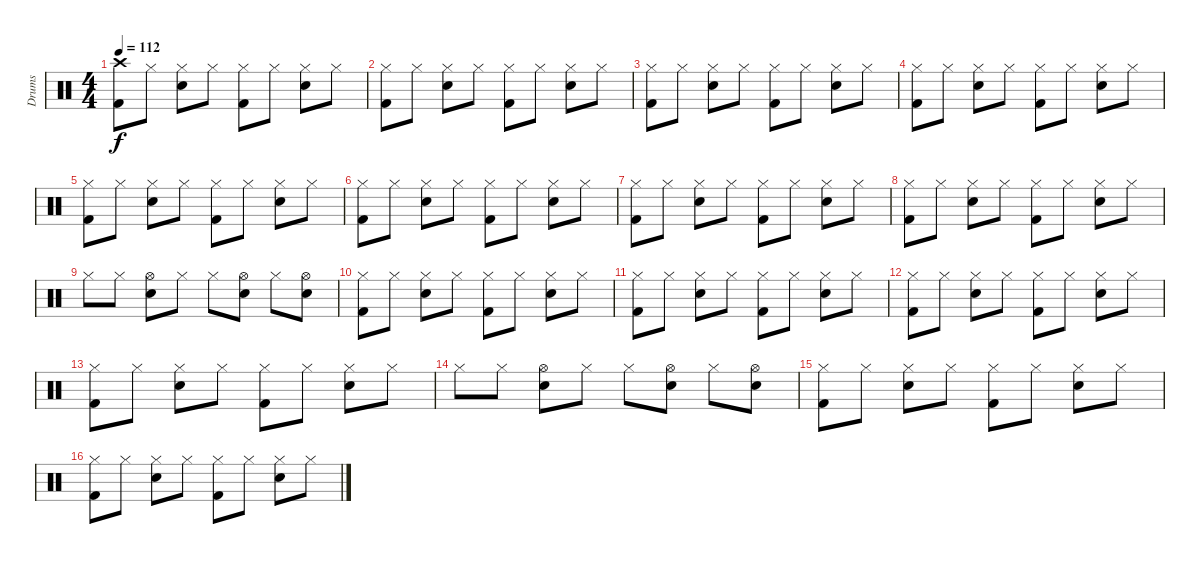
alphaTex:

\track ("Drums" "Drums") {instrument percussion}
\staff {score}
\articulation defaults
\ts (4 4)
\tempo 112
\clef neutral
\ks c
("Kick (hit) 2" "Crash high (hit)").8{dy f} "Hi-Hat (closed)".8 ("Snare (hit) 2" "Hi-Hat (closed)").8 "Hi-Hat (closed)".8 ("Kick (hit) 2" "Hi-Hat (closed)").8 "Hi-Hat (closed)".8 ("Snare (hit) 2" "Hi-Hat (closed)").8 "Hi-Hat (closed)".8 |
("Kick (hit) 2" "Hi-Hat (closed)").8 "Hi-Hat (closed)".8 ("Snare (hit) 2" "Hi-Hat (closed)").8 "Hi-Hat (closed)".8 ("Kick (hit) 2" "Hi-Hat (closed)").8 "Hi-Hat (closed)".8 ("Snare (hit) 2" "Hi-Hat (closed)").8 "Hi-Hat (closed)".8 |
("Kick (hit) 2" "Hi-Hat (closed)").8 "Hi-Hat (closed)".8 ("Snare (hit) 2" "Hi-Hat (closed)").8 "Hi-Hat (closed)".8 ("Kick (hit) 2" "Hi-Hat (closed)").8 "Hi-Hat (closed)".8 ("Snare (hit) 2" "Hi-Hat (closed)").8 "Hi-Hat (closed)".8 |
("Kick (hit) 2" "Hi-Hat (closed)").8 "Hi-Hat (closed)".8 ("Snare (hit) 2" "Hi-Hat (closed)").8 "Hi-Hat (closed)".8 ("Kick (hit) 2" "Hi-Hat (closed)").8 "Hi-Hat (closed)".8 ("Snare (hit) 2" "Hi-Hat (closed)").8 "Hi-Hat (closed)".8 |
("Kick (hit) 2" "Hi-Hat (closed)").8 "Hi-Hat (closed)".8 ("Snare (hit) 2" "Hi-Hat (closed)").8 "Hi-Hat (closed)".8 ("Kick (hit) 2" "Hi-Hat (closed)").8 "Hi-Hat (closed)".8 ("Snare (hit) 2" "Hi-Hat (closed)").8 "Hi-Hat (closed)".8 |
("Kick (hit) 2" "Hi-Hat (closed)").8 "Hi-Hat (closed)".8 ("Snare (hit) 2" "Hi-Hat (closed)").8 "Hi-Hat (closed)".8 ("Kick (hit) 2" "Hi-Hat (closed)").8 "Hi-Hat (closed)".8 ("Snare (hit) 2" "Hi-Hat (closed)").8 "Hi-Hat (closed)".8 |
("Kick (hit) 2" "Hi-Hat (closed)").8 "Hi-Hat (closed)".8 ("Snare (hit) 2" "Hi-Hat (closed)").8 "Hi-Hat (closed)".8 ("Kick (hit) 2" "Hi-Hat (closed)").8 "Hi-Hat (closed)".8 ("Snare (hit) 2" "Hi-Hat (closed)").8 "Hi-Hat (closed)".8 |
("Kick (hit) 2" "Hi-Hat (closed)").8 "Hi-Hat (closed)".8 ("Snare (hit) 2" "Hi-Hat (closed)").8 "Hi-Hat (closed)".8 ("Kick (hit) 2" "Hi-Hat (closed)").8 "Hi-Hat (closed)".8 ("Snare (hit) 2" "Hi-Hat (closed)").8 "Hi-Hat (closed)".8 |
"Hi-Hat (closed)".8 "Hi-Hat (closed)".8 ("Snare (hit) 2" "Hi-Hat (open)").8 "Hi-Hat (closed)".8 "Hi-Hat (closed)".8 ("Snare (hit) 2" "Hi-Hat (open)").8 "Hi-Hat (closed)".8 ("Snare (hit) 2" "Hi-Hat (open)").8 |
("Kick (hit) 2" "Hi-Hat (closed)").8 "Hi-Hat (closed)".8 ("Snare (hit) 2" "Hi-Hat (closed)").8 "Hi-Hat (closed)".8 ("Kick (hit) 2" "Hi-Hat (closed)").8 "Hi-Hat (closed)".8 ("Snare (hit) 2" "Hi-Hat (closed)").8 "Hi-Hat (closed)".8 |
("Kick (hit) 2" "Hi-Hat (closed)").8 "Hi-Hat (closed)".8 ("Snare (hit) 2" "Hi-Hat (closed)").8 "Hi-Hat (closed)".8 ("Kick (hit) 2" "Hi-Hat (closed)").8 "Hi-Hat (closed)".8 ("Snare (hit) 2" "Hi-Hat (closed)").8 "Hi-Hat (closed)".8 |
("Kick (hit) 2" "Hi-Hat (closed)").8 "Hi-Hat (closed)".8 ("Snare (hit) 2" "Hi-Hat (closed)").8 "Hi-Hat (closed)".8 ("Kick (hit) 2" "Hi-Hat (closed)").8 "Hi-Hat (closed)".8 ("Snare (hit) 2" "Hi-Hat (closed)").8 "Hi-Hat (closed)".8 |
("Kick (hit) 2" "Hi-Hat (closed)").8 "Hi-Hat (closed)".8 ("Snare (hit) 2" "Hi-Hat (closed)").8 "Hi-Hat (closed)".8 ("Kick (hit) 2" "Hi-Hat (closed)").8 "Hi-Hat (closed)".8 ("Snare (hit) 2" "Hi-Hat (closed)").8 "Hi-Hat (closed)".8 |
"Hi-Hat (closed)".8 "Hi-Hat (closed)".8 ("Snare (hit) 2" "Hi-Hat (open)").8 "Hi-Hat (closed)".8 "Hi-Hat (closed)".8 ("Snare (hit) 2" "Hi-Hat (open)").8 "Hi-Hat (closed)".8 ("Snare (hit) 2" "Hi-Hat (open)").8 |
("Kick (hit) 2" "Hi-Hat (closed)").8 "Hi-Hat (closed)".8 ("Snare (hit) 2" "Hi-Hat (closed)").8 "Hi-Hat (closed)".8 ("Kick (hit) 2" "Hi-Hat (closed)").8 "Hi-Hat (closed)".8 ("Snare (hit) 2" "Hi-Hat (closed)").8 "Hi-Hat (closed)".8 |
("Kick (hit) 2" "Hi-Hat (closed)").8 "Hi-Hat (closed)".8 ("Snare (hit) 2" "Hi-Hat (closed)").8 "Hi-Hat (closed)".8 ("Kick (hit) 2" "Hi-Hat (closed)").8 "Hi-Hat (closed)".8 ("Snare (hit) 2" "Hi-Hat (closed)").8 "Hi-Hat (closed)".8
